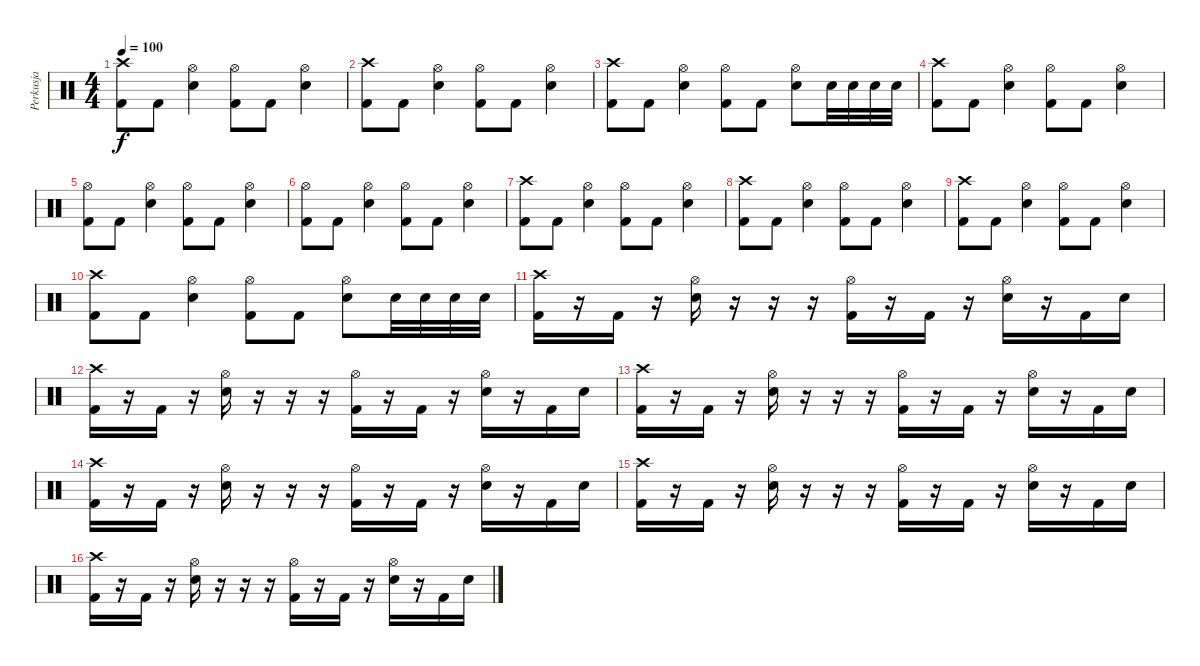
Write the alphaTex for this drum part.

\track ("Perkusja" "Perkusja") {instrument percussion}
\staff {score}
\articulation defaults
\ts (4 4)
\tempo 100
\clef neutral
\ks c
("Crash high (hit)" "Kick (hit) 2").8{dy f} "Kick (hit) 2".8 ("Hi-Hat (open)" "Electric Snare (hit)").4 ("Hi-Hat (open)" "Kick (hit) 2").8 "Kick (hit) 2".8 ("Hi-Hat (open)" "Electric Snare (hit)").4 |
("Crash high (hit)" "Kick (hit) 2").8 "Kick (hit) 2".8 ("Hi-Hat (open)" "Electric Snare (hit)").4 ("Hi-Hat (open)" "Kick (hit) 2").8 "Kick (hit) 2".8 ("Hi-Hat (open)" "Electric Snare (hit)").4 |
("Crash high (hit)" "Kick (hit) 2").8 "Kick (hit) 2".8 ("Hi-Hat (open)" "Electric Snare (hit)").4 ("Hi-Hat (open)" "Kick (hit) 2").8 "Kick (hit) 2".8 ("Hi-Hat (open)" "Electric Snare (hit)").8 "Electric Snare (hit)".32 "Electric Snare (hit)".32 "Electric Snare (hit)".32 "Electric Snare (hit)".32 |
("Crash high (hit)" "Kick (hit) 2").8 "Kick (hit) 2".8 ("Hi-Hat (open)" "Electric Snare (hit)").4 ("Hi-Hat (open)" "Kick (hit) 2").8 "Kick (hit) 2".8 ("Hi-Hat (open)" "Electric Snare (hit)").4 |
("Hi-Hat (open)" "Kick (hit) 2").8 "Kick (hit) 2".8 ("Hi-Hat (open)" "Electric Snare (hit)").4 ("Hi-Hat (open)" "Kick (hit) 2").8 "Kick (hit) 2".8 ("Hi-Hat (open)" "Electric Snare (hit)").4 |
("Hi-Hat (open)" "Kick (hit) 2").8 "Kick (hit) 2".8 ("Hi-Hat (open)" "Electric Snare (hit)").4 ("Hi-Hat (open)" "Kick (hit) 2").8 "Kick (hit) 2".8 ("Hi-Hat (open)" "Electric Snare (hit)").4 |
("Crash high (hit)" "Kick (hit) 2").8 "Kick (hit) 2".8 ("Hi-Hat (open)" "Electric Snare (hit)").4 ("Hi-Hat (open)" "Kick (hit) 2").8 "Kick (hit) 2".8 ("Hi-Hat (open)" "Electric Snare (hit)").4 |
("Crash high (hit)" "Kick (hit) 2").8 "Kick (hit) 2".8 ("Hi-Hat (open)" "Electric Snare (hit)").4 ("Hi-Hat (open)" "Kick (hit) 2").8 "Kick (hit) 2".8 ("Hi-Hat (open)" "Electric Snare (hit)").4 |
("Crash high (hit)" "Kick (hit) 2").8 "Kick (hit) 2".8 ("Hi-Hat (open)" "Electric Snare (hit)").4 ("Hi-Hat (open)" "Kick (hit) 2").8 "Kick (hit) 2".8 ("Hi-Hat (open)" "Electric Snare (hit)").4 |
("Crash high (hit)" "Kick (hit) 2").8 "Kick (hit) 2".8 ("Hi-Hat (open)" "Electric Snare (hit)").4 ("Hi-Hat (open)" "Kick (hit) 2").8 "Kick (hit) 2".8 ("Hi-Hat (open)" "Electric Snare (hit)").8 "Electric Snare (hit)".32 "Electric Snare (hit)".32 "Electric Snare (hit)".32 "Electric Snare (hit)".32 |
("Crash high (hit)" "Kick (hit) 2").16 r.16 "Kick (hit) 2".16 r.16 ("Hi-Hat (open)" "Electric Snare (hit)").16 r.16 r.16 r.16 ("Hi-Hat (open)" "Kick (hit) 2").16 r.16 "Kick (hit) 2".16 r.16 ("Hi-Hat (open)" "Electric Snare (hit)").16 r.16 "Kick (hit) 2".16 "Electric Snare (hit)".16 |
("Crash high (hit)" "Kick (hit) 2").16 r.16 "Kick (hit) 2".16 r.16 ("Hi-Hat (open)" "Electric Snare (hit)").16 r.16 r.16 r.16 ("Hi-Hat (open)" "Kick (hit) 2").16 r.16 "Kick (hit) 2".16 r.16 ("Hi-Hat (open)" "Electric Snare (hit)").16 r.16 "Kick (hit) 2".16 "Electric Snare (hit)".16 |
("Crash high (hit)" "Kick (hit) 2").16 r.16 "Kick (hit) 2".16 r.16 ("Hi-Hat (open)" "Electric Snare (hit)").16 r.16 r.16 r.16 ("Hi-Hat (open)" "Kick (hit) 2").16 r.16 "Kick (hit) 2".16 r.16 ("Hi-Hat (open)" "Electric Snare (hit)").16 r.16 "Kick (hit) 2".16 "Electric Snare (hit)".16 |
("Crash high (hit)" "Kick (hit) 2").16 r.16 "Kick (hit) 2".16 r.16 ("Hi-Hat (open)" "Electric Snare (hit)").16 r.16 r.16 r.16 ("Hi-Hat (open)" "Kick (hit) 2").16 r.16 "Kick (hit) 2".16 r.16 ("Hi-Hat (open)" "Electric Snare (hit)").16 r.16 "Kick (hit) 2".16 "Electric Snare (hit)".16 |
("Crash high (hit)" "Kick (hit) 2").16 r.16 "Kick (hit) 2".16 r.16 ("Hi-Hat (open)" "Electric Snare (hit)").16 r.16 r.16 r.16 ("Hi-Hat (open)" "Kick (hit) 2").16 r.16 "Kick (hit) 2".16 r.16 ("Hi-Hat (open)" "Electric Snare (hit)").16 r.16 "Kick (hit) 2".16 "Electric Snare (hit)".16 |
("Crash high (hit)" "Kick (hit) 2").16 r.16 "Kick (hit) 2".16 r.16 ("Hi-Hat (open)" "Electric Snare (hit)").16 r.16 r.16 r.16 ("Hi-Hat (open)" "Kick (hit) 2").16 r.16 "Kick (hit) 2".16 r.16 ("Hi-Hat (open)" "Electric Snare (hit)").16 r.16 "Kick (hit) 2".16 "Electric Snare (hit)".16
